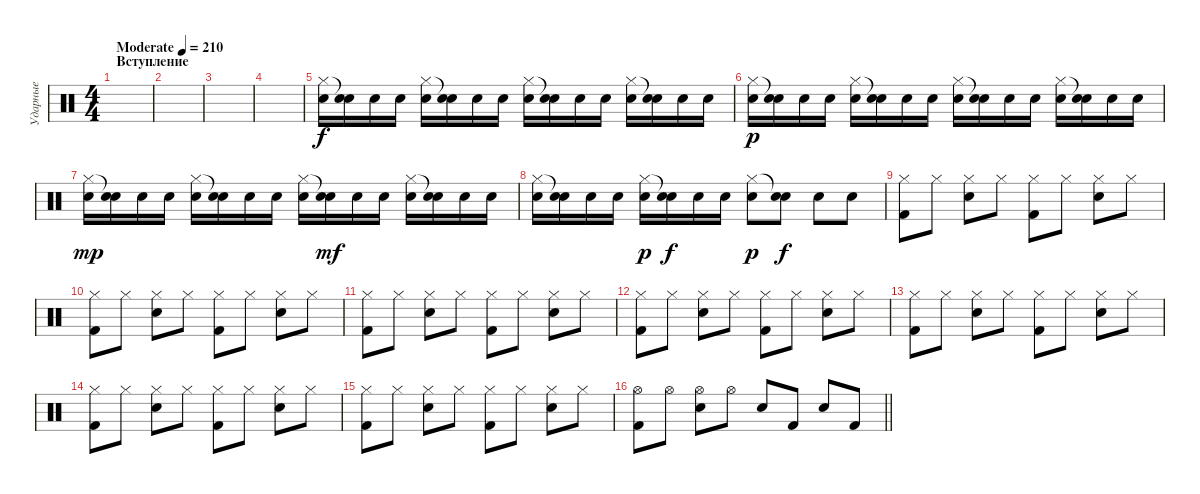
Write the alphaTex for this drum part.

\track ("Ударные" "Ударные") {instrument percussion}
\staff {score}
\articulation defaults
\ts (4 4)
\section ("" "Вступление")
\tempo (210 "Moderate")
\clef neutral
\ks c
|
|
|
|
("Hi-Hat (closed)" "Electric Snare (hit)").16 ("Snare (hit)"{t} "Electric Snare (hit)").16 "Electric Snare (hit)".16 "Electric Snare (hit)".16 ("Hi-Hat (closed)" "Electric Snare (hit)").16 ("Snare (hit)"{t} "Electric Snare (hit)").16 "Electric Snare (hit)".16 "Electric Snare (hit)".16 ("Hi-Hat (closed)" "Electric Snare (hit)").16 ("Snare (hit)"{t} "Electric Snare (hit)").16 "Electric Snare (hit)".16 "Electric Snare (hit)".16 ("Hi-Hat (closed)" "Electric Snare (hit)").16 ("Snare (hit)"{t} "Electric Snare (hit)").16 "Electric Snare (hit)".16 "Electric Snare (hit)".16 |
("Hi-Hat (closed)" "Electric Snare (hit)").16{dy p} ("Snare (hit)"{t} "Electric Snare (hit)").16 "Electric Snare (hit)".16 "Electric Snare (hit)".16 ("Hi-Hat (closed)" "Electric Snare (hit)").16 ("Snare (hit)"{t} "Electric Snare (hit)").16 "Electric Snare (hit)".16 "Electric Snare (hit)".16 ("Hi-Hat (closed)" "Electric Snare (hit)").16 ("Snare (hit)"{t} "Electric Snare (hit)").16 "Electric Snare (hit)".16 "Electric Snare (hit)".16 ("Hi-Hat (closed)" "Electric Snare (hit)").16 ("Snare (hit)"{t} "Electric Snare (hit)").16 "Electric Snare (hit)".16 "Electric Snare (hit)".16 |
("Hi-Hat (closed)" "Electric Snare (hit)").16{dy mp} ("Snare (hit)"{t} "Electric Snare (hit)").16 "Electric Snare (hit)".16 "Electric Snare (hit)".16 ("Hi-Hat (closed)" "Electric Snare (hit)").16 ("Snare (hit)"{t} "Electric Snare (hit)").16 "Electric Snare (hit)".16 "Electric Snare (hit)".16 ("Hi-Hat (closed)" "Electric Snare (hit)").16 ("Snare (hit)"{t} "Electric Snare (hit)").16{dy mf} "Electric Snare (hit)".16 "Electric Snare (hit)".16 ("Hi-Hat (closed)" "Electric Snare (hit)").16 ("Snare (hit)"{t} "Electric Snare (hit)").16 "Electric Snare (hit)".16 "Electric Snare (hit)".16 |
("Hi-Hat (closed)" "Electric Snare (hit)").16 ("Snare (hit)"{t} "Electric Snare (hit)").16 "Electric Snare (hit)".16 "Electric Snare (hit)".16 ("Hi-Hat (closed)" "Electric Snare (hit)").16{dy p} ("Snare (hit)"{t} "Electric Snare (hit)").16{dy f} "Electric Snare (hit)".16 "Electric Snare (hit)".16 ("Hi-Hat (closed)" "Electric Snare (hit)").8{dy p} ("Snare (hit)"{t} "Electric Snare (hit)").8{dy f} "Electric Snare (hit)".8 "Electric Snare (hit)".8 |
("Hi-Hat (closed)" "Kick (hit) 2").8 "Hi-Hat (closed)".8 ("Hi-Hat (closed)" "Electric Snare (hit)").8 "Hi-Hat (closed)".8 ("Hi-Hat (closed)" "Kick (hit) 2").8 "Hi-Hat (closed)".8 ("Hi-Hat (closed)" "Electric Snare (hit)").8 "Hi-Hat (closed)".8 |
("Hi-Hat (closed)" "Kick (hit) 2").8 "Hi-Hat (closed)".8 ("Hi-Hat (closed)" "Electric Snare (hit)").8 "Hi-Hat (closed)".8 ("Hi-Hat (closed)" "Kick (hit) 2").8 "Hi-Hat (closed)".8 ("Hi-Hat (closed)" "Electric Snare (hit)").8 "Hi-Hat (closed)".8 |
("Hi-Hat (closed)" "Kick (hit) 2").8 "Hi-Hat (closed)".8 ("Hi-Hat (closed)" "Electric Snare (hit)").8 "Hi-Hat (closed)".8 ("Hi-Hat (closed)" "Kick (hit) 2").8 "Hi-Hat (closed)".8 ("Hi-Hat (closed)" "Electric Snare (hit)").8 "Hi-Hat (closed)".8 |
("Hi-Hat (closed)" "Kick (hit) 2").8 "Hi-Hat (closed)".8 ("Hi-Hat (closed)" "Electric Snare (hit)").8 "Hi-Hat (closed)".8 ("Hi-Hat (closed)" "Kick (hit) 2").8 "Hi-Hat (closed)".8 ("Hi-Hat (closed)" "Electric Snare (hit)").8 "Hi-Hat (closed)".8 |
("Hi-Hat (closed)" "Kick (hit) 2").8 "Hi-Hat (closed)".8 ("Hi-Hat (closed)" "Electric Snare (hit)").8 "Hi-Hat (closed)".8 ("Hi-Hat (closed)" "Kick (hit) 2").8 "Hi-Hat (closed)".8 ("Hi-Hat (closed)" "Electric Snare (hit)").8 "Hi-Hat (closed)".8 |
("Hi-Hat (closed)" "Kick (hit) 2").8 "Hi-Hat (closed)".8 ("Hi-Hat (closed)" "Electric Snare (hit)").8 "Hi-Hat (closed)".8 ("Hi-Hat (closed)" "Kick (hit) 2").8 "Hi-Hat (closed)".8 ("Hi-Hat (closed)" "Electric Snare (hit)").8 "Hi-Hat (closed)".8 |
("Hi-Hat (closed)" "Kick (hit) 2").8 "Hi-Hat (closed)".8 ("Hi-Hat (closed)" "Electric Snare (hit)").8 "Hi-Hat (closed)".8 ("Hi-Hat (closed)" "Kick (hit) 2").8 "Hi-Hat (closed)".8 ("Hi-Hat (closed)" "Electric Snare (hit)").8 "Hi-Hat (closed)".8 |
\barLineRight lightlight
("Hi-Hat (open)" "Kick (hit) 2").8 "Hi-Hat (open)".8 ("Hi-Hat (open)" "Electric Snare (hit)").8 "Hi-Hat (open)".8 "Electric Snare (hit)".8 "Kick (hit) 2".8 "Electric Snare (hit)".8 "Kick (hit) 2".8
